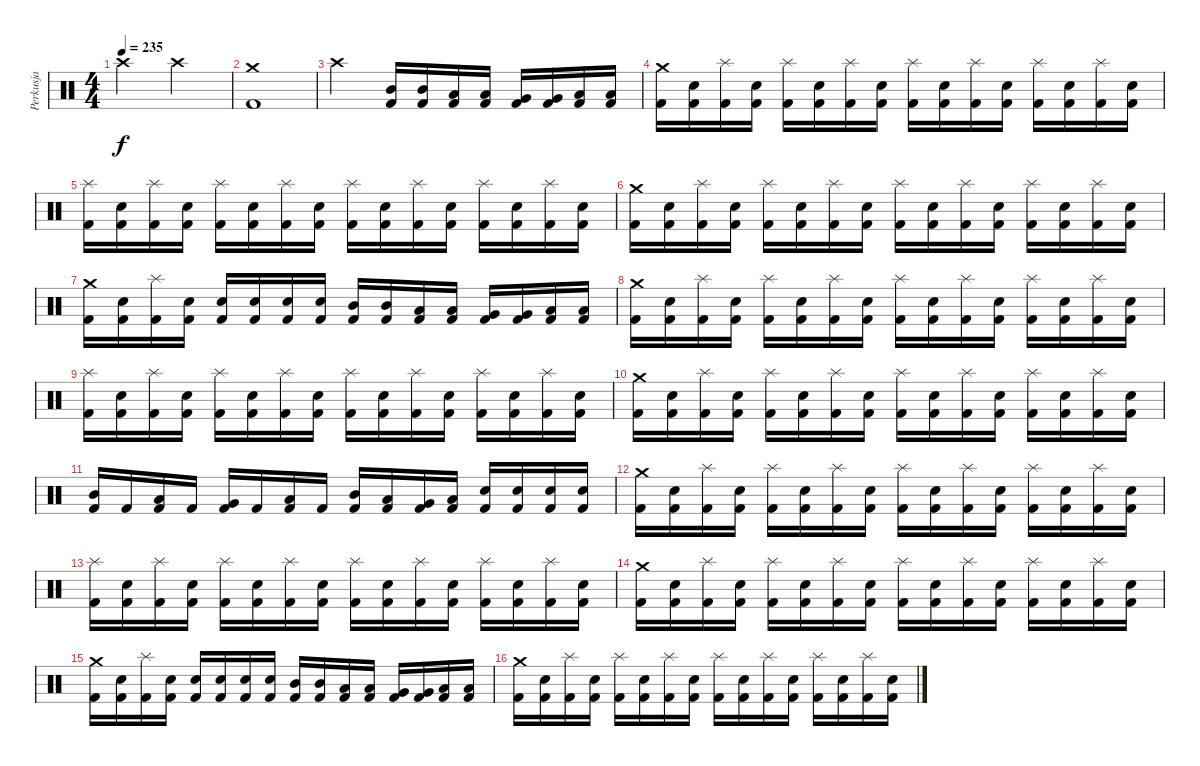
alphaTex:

\track ("Perkusja" "Perkusja") {instrument percussion}
\staff {score}
\articulation defaults
\ts (4 4)
\tempo 235
\clef neutral
\ks c "Crash high (hit)".2{dy f} "Crash high (hit)".2
|
("Kick (hit) 2" "Crash medium (hit)").1 |
"Crash high (hit)".2 ("Mid Tom (hit)" "Kick (hit) 2").16 ("Mid Tom (hit)" "Kick (hit) 2").16 ("Low Tom (hit)" "Kick (hit) 2").16 ("Low Tom (hit)" "Kick (hit) 2").16 ("Very Low Tom (hit)" "Kick (hit) 2").16 ("Very Low Tom (hit)" "Kick (hit) 2").16 ("Low Floor Tom (hit)" "Kick (hit) 2").16 ("Low Floor Tom (hit)" "Kick (hit) 2").16 |
("Crash medium (hit)" "Kick (hit) 2").16 ("Snare (hit) 2" "Kick (hit) 2").16 ("Splash (hit)" "Kick (hit) 2").16 ("Snare (hit) 2" "Kick (hit) 2").16 ("Splash (hit)" "Kick (hit) 2").16 ("Snare (hit) 2" "Kick (hit) 2").16 ("Splash (hit)" "Kick (hit) 2").16 ("Snare (hit) 2" "Kick (hit) 2").16 ("Splash (hit)" "Kick (hit) 2").16 ("Snare (hit) 2" "Kick (hit) 2").16 ("Splash (hit)" "Kick (hit) 2").16 ("Snare (hit) 2" "Kick (hit) 2").16 ("Splash (hit)" "Kick (hit) 2").16 ("Snare (hit) 2" "Kick (hit) 2").16 ("Splash (hit)" "Kick (hit) 2").16 ("Snare (hit) 2" "Kick (hit) 2").16 |
("Splash (hit)" "Kick (hit) 2").16 ("Snare (hit) 2" "Kick (hit) 2").16 ("Splash (hit)" "Kick (hit) 2").16 ("Snare (hit) 2" "Kick (hit) 2").16 ("Splash (hit)" "Kick (hit) 2").16 ("Snare (hit) 2" "Kick (hit) 2").16 ("Splash (hit)" "Kick (hit) 2").16 ("Snare (hit) 2" "Kick (hit) 2").16 ("Splash (hit)" "Kick (hit) 2").16 ("Snare (hit) 2" "Kick (hit) 2").16 ("Splash (hit)" "Kick (hit) 2").16 ("Snare (hit) 2" "Kick (hit) 2").16 ("Splash (hit)" "Kick (hit) 2").16 ("Snare (hit) 2" "Kick (hit) 2").16 ("Splash (hit)" "Kick (hit) 2").16 ("Snare (hit) 2" "Kick (hit) 2").16 |
("Crash medium (hit)" "Kick (hit) 2").16 ("Snare (hit) 2" "Kick (hit) 2").16 ("Splash (hit)" "Kick (hit) 2").16 ("Snare (hit) 2" "Kick (hit) 2").16 ("Splash (hit)" "Kick (hit) 2").16 ("Snare (hit) 2" "Kick (hit) 2").16 ("Splash (hit)" "Kick (hit) 2").16 ("Snare (hit) 2" "Kick (hit) 2").16 ("Splash (hit)" "Kick (hit) 2").16 ("Snare (hit) 2" "Kick (hit) 2").16 ("Splash (hit)" "Kick (hit) 2").16 ("Snare (hit) 2" "Kick (hit) 2").16 ("Splash (hit)" "Kick (hit) 2").16 ("Snare (hit) 2" "Kick (hit) 2").16 ("Splash (hit)" "Kick (hit) 2").16 ("Snare (hit) 2" "Kick (hit) 2").16 |
("Crash medium (hit)" "Kick (hit) 2").16 ("Snare (hit) 2" "Kick (hit) 2").16 ("Splash (hit)" "Kick (hit) 2").16 ("Snare (hit) 2" "Kick (hit) 2").16 ("Electric Snare (hit)" "Kick (hit) 2").16 ("Electric Snare (hit)" "Kick (hit) 2").16 ("Electric Snare (hit)" "Kick (hit) 2").16 ("Electric Snare (hit)" "Kick (hit) 2").16 ("Mid Tom (hit)" "Kick (hit) 2").16 ("Mid Tom (hit)" "Kick (hit) 2").16 ("Low Tom (hit)" "Kick (hit) 2").16 ("Low Tom (hit)" "Kick (hit) 2").16 ("Very Low Tom (hit)" "Kick (hit) 2").16 ("Very Low Tom (hit)" "Kick (hit) 2").16 ("Low Floor Tom (hit)" "Kick (hit) 2").16 ("Low Floor Tom (hit)" "Kick (hit) 2").16 |
("Crash medium (hit)" "Kick (hit) 2").16 ("Snare (hit) 2" "Kick (hit) 2").16 ("Splash (hit)" "Kick (hit) 2").16 ("Snare (hit) 2" "Kick (hit) 2").16 ("Splash (hit)" "Kick (hit) 2").16 ("Snare (hit) 2" "Kick (hit) 2").16 ("Splash (hit)" "Kick (hit) 2").16 ("Snare (hit) 2" "Kick (hit) 2").16 ("Splash (hit)" "Kick (hit) 2").16 ("Snare (hit) 2" "Kick (hit) 2").16 ("Splash (hit)" "Kick (hit) 2").16 ("Snare (hit) 2" "Kick (hit) 2").16 ("Splash (hit)" "Kick (hit) 2").16 ("Snare (hit) 2" "Kick (hit) 2").16 ("Splash (hit)" "Kick (hit) 2").16 ("Snare (hit) 2" "Kick (hit) 2").16 |
("Splash (hit)" "Kick (hit) 2").16 ("Snare (hit) 2" "Kick (hit) 2").16 ("Splash (hit)" "Kick (hit) 2").16 ("Snare (hit) 2" "Kick (hit) 2").16 ("Splash (hit)" "Kick (hit) 2").16 ("Snare (hit) 2" "Kick (hit) 2").16 ("Splash (hit)" "Kick (hit) 2").16 ("Snare (hit) 2" "Kick (hit) 2").16 ("Splash (hit)" "Kick (hit) 2").16 ("Snare (hit) 2" "Kick (hit) 2").16 ("Splash (hit)" "Kick (hit) 2").16 ("Snare (hit) 2" "Kick (hit) 2").16 ("Splash (hit)" "Kick (hit) 2").16 ("Snare (hit) 2" "Kick (hit) 2").16 ("Splash (hit)" "Kick (hit) 2").16 ("Snare (hit) 2" "Kick (hit) 2").16 |
("Crash medium (hit)" "Kick (hit) 2").16 ("Snare (hit) 2" "Kick (hit) 2").16 ("Splash (hit)" "Kick (hit) 2").16 ("Snare (hit) 2" "Kick (hit) 2").16 ("Splash (hit)" "Kick (hit) 2").16 ("Snare (hit) 2" "Kick (hit) 2").16 ("Splash (hit)" "Kick (hit) 2").16 ("Snare (hit) 2" "Kick (hit) 2").16 ("Splash (hit)" "Kick (hit) 2").16 ("Snare (hit) 2" "Kick (hit) 2").16 ("Splash (hit)" "Kick (hit) 2").16 ("Snare (hit) 2" "Kick (hit) 2").16 ("Splash (hit)" "Kick (hit) 2").16 ("Snare (hit) 2" "Kick (hit) 2").16 ("Splash (hit)" "Kick (hit) 2").16 ("Snare (hit) 2" "Kick (hit) 2").16 |
("Mid Tom (hit)" "Kick (hit) 2").16 "Kick (hit) 2".16 ("Low Tom (hit)" "Kick (hit) 2").16 "Kick (hit) 2".16 ("Very Low Tom (hit)" "Kick (hit) 2").16 "Kick (hit) 2".16 ("Low Floor Tom (hit)" "Kick (hit) 2").16 "Kick (hit) 2".16 ("Mid Tom (hit)" "Kick (hit) 2").16 ("Low Tom (hit)" "Kick (hit) 2").16 ("Very Low Tom (hit)" "Kick (hit) 2").16 ("Low Floor Tom (hit)" "Kick (hit) 2").16 ("Snare (hit) 2" "Kick (hit) 2").16 ("Snare (hit) 2" "Kick (hit) 2").16 ("Snare (hit) 2" "Kick (hit) 2").16 ("Snare (hit) 2" "Kick (hit) 2").16 |
("Crash medium (hit)" "Kick (hit) 2").16 ("Snare (hit) 2" "Kick (hit) 2").16 ("Splash (hit)" "Kick (hit) 2").16 ("Snare (hit) 2" "Kick (hit) 2").16 ("Splash (hit)" "Kick (hit) 2").16 ("Snare (hit) 2" "Kick (hit) 2").16 ("Splash (hit)" "Kick (hit) 2").16 ("Snare (hit) 2" "Kick (hit) 2").16 ("Splash (hit)" "Kick (hit) 2").16 ("Snare (hit) 2" "Kick (hit) 2").16 ("Splash (hit)" "Kick (hit) 2").16 ("Snare (hit) 2" "Kick (hit) 2").16 ("Splash (hit)" "Kick (hit) 2").16 ("Snare (hit) 2" "Kick (hit) 2").16 ("Splash (hit)" "Kick (hit) 2").16 ("Snare (hit) 2" "Kick (hit) 2").16 |
("Splash (hit)" "Kick (hit) 2").16 ("Snare (hit) 2" "Kick (hit) 2").16 ("Splash (hit)" "Kick (hit) 2").16 ("Snare (hit) 2" "Kick (hit) 2").16 ("Splash (hit)" "Kick (hit) 2").16 ("Snare (hit) 2" "Kick (hit) 2").16 ("Splash (hit)" "Kick (hit) 2").16 ("Snare (hit) 2" "Kick (hit) 2").16 ("Splash (hit)" "Kick (hit) 2").16 ("Snare (hit) 2" "Kick (hit) 2").16 ("Splash (hit)" "Kick (hit) 2").16 ("Snare (hit) 2" "Kick (hit) 2").16 ("Splash (hit)" "Kick (hit) 2").16 ("Snare (hit) 2" "Kick (hit) 2").16 ("Splash (hit)" "Kick (hit) 2").16 ("Snare (hit) 2" "Kick (hit) 2").16 |
("Crash medium (hit)" "Kick (hit) 2").16 ("Snare (hit) 2" "Kick (hit) 2").16 ("Splash (hit)" "Kick (hit) 2").16 ("Snare (hit) 2" "Kick (hit) 2").16 ("Splash (hit)" "Kick (hit) 2").16 ("Snare (hit) 2" "Kick (hit) 2").16 ("Splash (hit)" "Kick (hit) 2").16 ("Snare (hit) 2" "Kick (hit) 2").16 ("Splash (hit)" "Kick (hit) 2").16 ("Snare (hit) 2" "Kick (hit) 2").16 ("Splash (hit)" "Kick (hit) 2").16 ("Snare (hit) 2" "Kick (hit) 2").16 ("Splash (hit)" "Kick (hit) 2").16 ("Snare (hit) 2" "Kick (hit) 2").16 ("Splash (hit)" "Kick (hit) 2").16 ("Snare (hit) 2" "Kick (hit) 2").16 |
("Crash medium (hit)" "Kick (hit) 2").16 ("Snare (hit) 2" "Kick (hit) 2").16 ("Splash (hit)" "Kick (hit) 2").16 ("Snare (hit) 2" "Kick (hit) 2").16 ("Electric Snare (hit)" "Kick (hit) 2").16 ("Electric Snare (hit)" "Kick (hit) 2").16 ("Electric Snare (hit)" "Kick (hit) 2").16 ("Electric Snare (hit)" "Kick (hit) 2").16 ("Mid Tom (hit)" "Kick (hit) 2").16 ("Mid Tom (hit)" "Kick (hit) 2").16 ("Low Tom (hit)" "Kick (hit) 2").16 ("Low Tom (hit)" "Kick (hit) 2").16 ("Very Low Tom (hit)" "Kick (hit) 2").16 ("Very Low Tom (hit)" "Kick (hit) 2").16 ("Low Floor Tom (hit)" "Kick (hit) 2").16 ("Low Floor Tom (hit)" "Kick (hit) 2").16 |
("Crash medium (hit)" "Kick (hit) 2").16 ("Snare (hit) 2" "Kick (hit) 2").16 ("Splash (hit)" "Kick (hit) 2").16 ("Snare (hit) 2" "Kick (hit) 2").16 ("Splash (hit)" "Kick (hit) 2").16 ("Snare (hit) 2" "Kick (hit) 2").16 ("Splash (hit)" "Kick (hit) 2").16 ("Snare (hit) 2" "Kick (hit) 2").16 ("Splash (hit)" "Kick (hit) 2").16 ("Snare (hit) 2" "Kick (hit) 2").16 ("Splash (hit)" "Kick (hit) 2").16 ("Snare (hit) 2" "Kick (hit) 2").16 ("Splash (hit)" "Kick (hit) 2").16 ("Snare (hit) 2" "Kick (hit) 2").16 ("Splash (hit)" "Kick (hit) 2").16 ("Snare (hit) 2" "Kick (hit) 2").16
